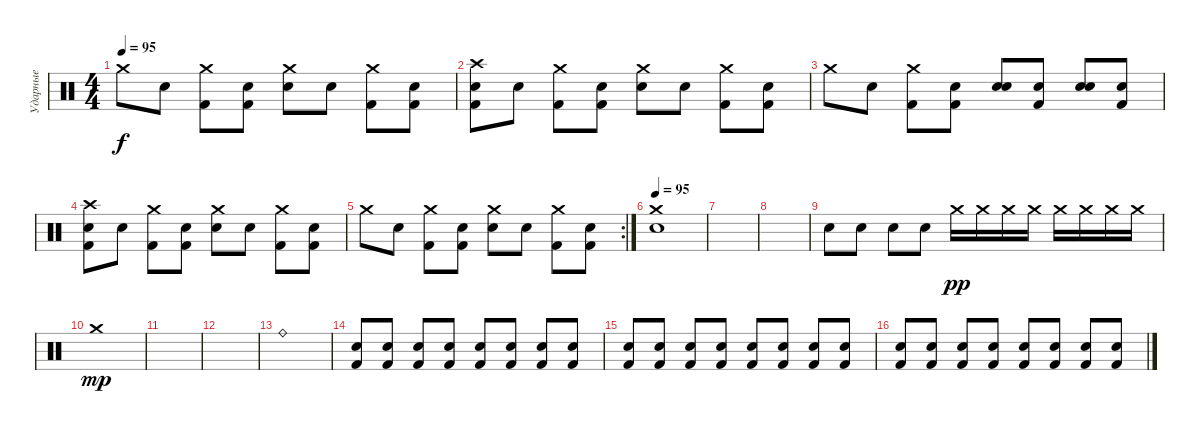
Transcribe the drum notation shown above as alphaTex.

\track ("Ударные" "Ударные") {instrument percussion}
\staff {score}
\articulation defaults
\ts (4 4)
\tempo 95
\clef neutral
\ks c "Crash medium (hit)".8{dy f} "Snare (hit)".8
("Crash medium (hit)" "Kick (hit) 2").8 ("Snare (hit)" "Kick (hit) 2").8 ("Crash medium (hit)" "Electric Snare (hit)").8 "Snare (hit)".8 ("Crash medium (hit)" "Kick (hit) 2").8 ("Snare (hit)" "Kick (hit) 2").8 |
("Crash high (hit)" "Kick (hit) 2" "Snare (hit) 2").8 "Snare (hit)".8 ("Crash medium (hit)" "Kick (hit) 2").8 ("Snare (hit)" "Kick (hit) 2").8 ("Crash medium (hit)" "Electric Snare (hit)").8 "Snare (hit)".8 ("Crash medium (hit)" "Kick (hit) 2").8 ("Snare (hit)" "Kick (hit) 2").8 |
"Crash medium (hit)".8 "Snare (hit)".8 ("Crash medium (hit)" "Kick (hit) 2").8 ("Snare (hit)" "Kick (hit) 2").8 ("Snare (hit)" "Electric Snare (hit)").8 ("Snare (hit)" "Kick (hit) 2").8 ("Snare (hit)" "Electric Snare (hit)").8 ("Snare (hit)" "Kick (hit) 2").8 |
("Crash high (hit)" "Kick (hit) 2" "Snare (hit) 2").8 "Snare (hit)".8 ("Crash medium (hit)" "Kick (hit) 2").8 ("Snare (hit)" "Kick (hit) 2").8 ("Crash medium (hit)" "Electric Snare (hit)").8 "Snare (hit)".8 ("Crash medium (hit)" "Kick (hit) 2").8 ("Snare (hit)" "Kick (hit) 2").8 |
\rc 2 "Crash medium (hit)".8 "Snare (hit)".8
("Crash medium (hit)" "Kick (hit) 2").8 ("Snare (hit)" "Kick (hit) 2").8 ("Crash medium (hit)" "Electric Snare (hit)").8 "Snare (hit)".8 ("Crash medium (hit)" "Kick (hit) 2").8 ("Snare (hit)" "Kick (hit) 2").8 |
\tempo 95
("Crash medium (hit)" "Electric Snare (hit)").1 |
|
|
"Snare (hit)".8 "Snare (hit)".8 "Snare (hit)".8 "Snare (hit)".8 "Crash medium (hit)".16{dy pp} "Crash medium (hit)".16 "Crash medium (hit)".16 "Crash medium (hit)".16 "Crash medium (hit)".16 "Crash medium (hit)".16 "Crash medium (hit)".16 "Crash medium (hit)".16 |
"Crash medium (hit)".1{dy mp} |
|
|
"Ride (bell)".1 |
("Electric Snare (hit)" "Kick (hit) 2").8{volume 8} ("Electric Snare (hit)" "Kick (hit) 2").8{volume 12} ("Electric Snare (hit)" "Kick (hit) 2").8 ("Electric Snare (hit)" "Kick (hit) 2").8 ("Electric Snare (hit)" "Kick (hit) 2").8 ("Electric Snare (hit)" "Kick (hit) 2").8 ("Electric Snare (hit)" "Kick (hit) 2").8 ("Electric Snare (hit)" "Kick (hit) 2").8 |
("Electric Snare (hit)" "Kick (hit) 2").8 ("Electric Snare (hit)" "Kick (hit) 2").8 ("Electric Snare (hit)" "Kick (hit) 2").8 ("Electric Snare (hit)" "Kick (hit) 2").8 ("Electric Snare (hit)" "Kick (hit) 2").8 ("Electric Snare (hit)" "Kick (hit) 2").8 ("Electric Snare (hit)" "Kick (hit) 2").8 ("Electric Snare (hit)" "Kick (hit) 2").8 |
("Electric Snare (hit)" "Kick (hit) 2").8 ("Electric Snare (hit)" "Kick (hit) 2").8 ("Electric Snare (hit)" "Kick (hit) 2").8 ("Electric Snare (hit)" "Kick (hit) 2").8 ("Electric Snare (hit)" "Kick (hit) 2").8 ("Electric Snare (hit)" "Kick (hit) 2").8 ("Electric Snare (hit)" "Kick (hit) 2").8 ("Electric Snare (hit)" "Kick (hit) 2").8
